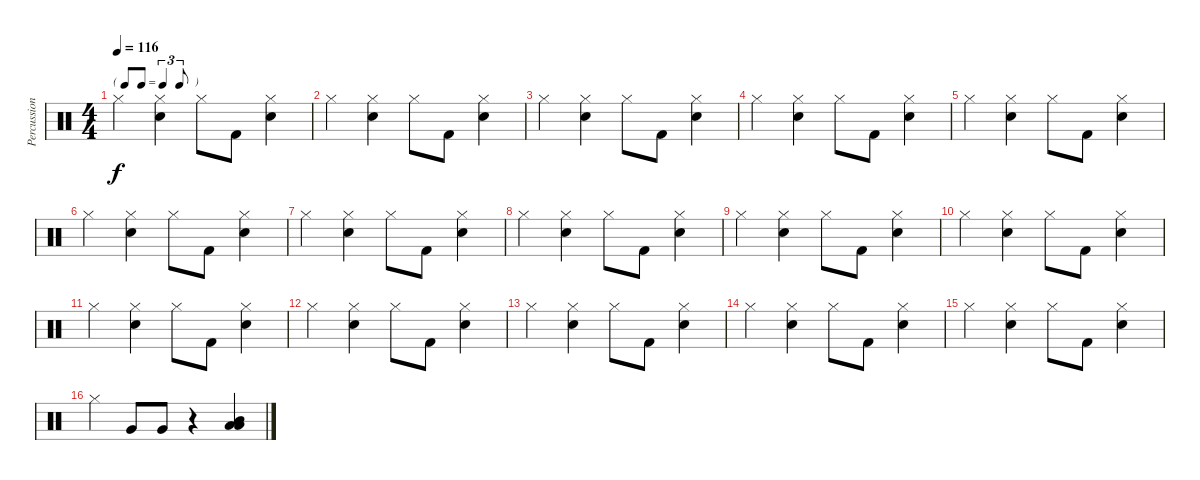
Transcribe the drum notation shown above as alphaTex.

\track ("Percussion" "Percussion") {instrument percussion}
\staff {score}
\articulation defaults
\ts (4 4)
\tf triplet8th
\tempo 116
\clef neutral
\ks c "Hi-Hat (closed)".4{dy f}
("Hi-Hat (closed)" "Snare (hit) 2").4 "Hi-Hat (closed)".8 "Kick (hit) 2".8 ("Hi-Hat (closed)" "Snare (hit) 2").4 |
"Hi-Hat (closed)".4 ("Hi-Hat (closed)" "Snare (hit) 2").4 "Hi-Hat (closed)".8 "Kick (hit) 2".8 ("Hi-Hat (closed)" "Snare (hit) 2").4 |
"Hi-Hat (closed)".4 ("Hi-Hat (closed)" "Snare (hit) 2").4 "Hi-Hat (closed)".8 "Kick (hit) 2".8 ("Hi-Hat (closed)" "Snare (hit) 2").4 |
"Hi-Hat (closed)".4 ("Hi-Hat (closed)" "Snare (hit) 2").4 "Hi-Hat (closed)".8 "Kick (hit) 2".8 ("Hi-Hat (closed)" "Snare (hit) 2").4 |
"Hi-Hat (closed)".4 ("Hi-Hat (closed)" "Snare (hit) 2").4 "Hi-Hat (closed)".8 "Kick (hit) 2".8 ("Hi-Hat (closed)" "Snare (hit) 2").4 |
"Hi-Hat (closed)".4 ("Hi-Hat (closed)" "Snare (hit) 2").4 "Hi-Hat (closed)".8 "Kick (hit) 2".8 ("Hi-Hat (closed)" "Snare (hit) 2").4 |
"Hi-Hat (closed)".4 ("Hi-Hat (closed)" "Snare (hit) 2").4 "Hi-Hat (closed)".8 "Kick (hit) 2".8 ("Hi-Hat (closed)" "Snare (hit) 2").4 |
"Hi-Hat (closed)".4 ("Hi-Hat (closed)" "Snare (hit) 2").4 "Hi-Hat (closed)".8 "Kick (hit) 2".8 ("Hi-Hat (closed)" "Snare (hit) 2").4 |
"Hi-Hat (closed)".4 ("Hi-Hat (closed)" "Snare (hit) 2").4 "Hi-Hat (closed)".8 "Kick (hit) 2".8 ("Hi-Hat (closed)" "Snare (hit) 2").4 |
"Hi-Hat (closed)".4 ("Hi-Hat (closed)" "Snare (hit) 2").4 "Hi-Hat (closed)".8 "Kick (hit) 2".8 ("Hi-Hat (closed)" "Snare (hit) 2").4 |
"Hi-Hat (closed)".4 ("Hi-Hat (closed)" "Snare (hit) 2").4 "Hi-Hat (closed)".8 "Kick (hit) 2".8 ("Hi-Hat (closed)" "Snare (hit) 2").4 |
"Hi-Hat (closed)".4 ("Hi-Hat (closed)" "Snare (hit) 2").4 "Hi-Hat (closed)".8 "Kick (hit) 2".8 ("Hi-Hat (closed)" "Snare (hit) 2").4 |
"Hi-Hat (closed)".4 ("Hi-Hat (closed)" "Snare (hit) 2").4 "Hi-Hat (closed)".8 "Kick (hit) 2".8 ("Hi-Hat (closed)" "Snare (hit) 2").4 |
"Hi-Hat (closed)".4 ("Hi-Hat (closed)" "Snare (hit) 2").4 "Hi-Hat (closed)".8 "Kick (hit) 2".8 ("Hi-Hat (closed)" "Snare (hit) 2").4 |
"Hi-Hat (closed)".4 ("Hi-Hat (closed)" "Snare (hit) 2").4 "Hi-Hat (closed)".8 "Kick (hit) 2".8 ("Hi-Hat (closed)" "Snare (hit) 2").4 |
"Hi-Hat (closed)".4 "Very Low Tom (hit)".8 "Very Low Tom (hit)".8 r.4 ("Mid Tom (hit)" "Low Floor Tom (hit)" "Low Tom (hit)").4
